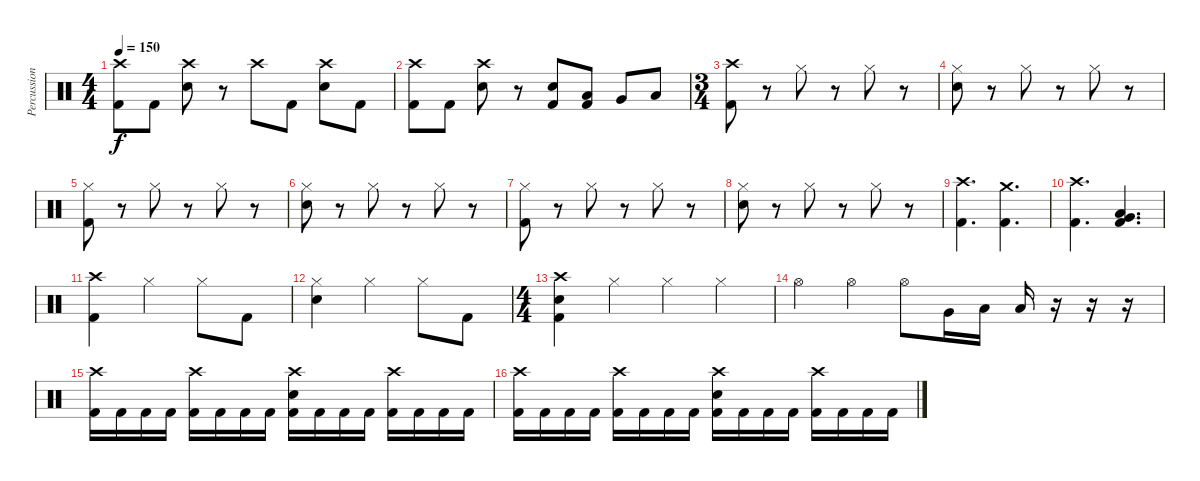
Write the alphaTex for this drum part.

\track ("Percussion" "Percussion") {instrument percussion}
\staff {score}
\articulation defaults
\ts (4 4)
\tempo 150
\clef neutral
\ks c
("Crash high (hit)" "Kick (hit) 2").8{dy f} "Kick (hit) 2".8 ("Crash high (hit)" "Electric Snare (hit)").8 r.8 "Crash high (hit)".8 "Kick (hit) 2".8 ("Crash high (hit)" "Electric Snare (hit)").8 "Kick (hit) 2".8 |
("Crash high (hit)" "Kick (hit) 2").8 "Kick (hit) 2".8 ("Crash high (hit)" "Electric Snare (hit)").8 r.8 ("Electric Snare (hit)" "Kick (hit) 2").8 ("Low Tom (hit)" "Kick (hit) 2").8 "Very Low Tom (hit)".8 "Low Floor Tom (hit)".8 |
\ts (3 4)
("Crash high (hit)" "Kick (hit) 2").8 r.8 "Hi-Hat (closed)".8 r.8 "Hi-Hat (closed)".8 r.8 |
("Hi-Hat (closed)" "Electric Snare (hit)").8 r.8 "Hi-Hat (closed)".8 r.8 "Hi-Hat (closed)".8 r.8 |
("Hi-Hat (closed)" "Kick (hit) 2").8 r.8 "Hi-Hat (closed)".8 r.8 "Hi-Hat (closed)".8 r.8 |
("Hi-Hat (closed)" "Electric Snare (hit)").8 r.8 "Hi-Hat (closed)".8 r.8 "Hi-Hat (closed)".8 r.8 |
("Hi-Hat (closed)" "Kick (hit) 2").8 r.8 "Hi-Hat (closed)".8 r.8 "Hi-Hat (closed)".8 r.8 |
("Hi-Hat (closed)" "Electric Snare (hit)").8 r.8 "Hi-Hat (closed)".8 r.8 "Hi-Hat (closed)".8 r.8 |
("Crash high (hit)" "Kick (hit) 2").4{d} ("Crash medium (hit)" "Kick (hit) 2").4{d} |
("Crash high (hit)" "Kick (hit) 2").4{d} ("Low Tom (hit)" "Very Low Tom (hit)" "Kick (hit) 2").4{d} |
("Crash high (hit)" "Kick (hit) 2").4 "Hi-Hat (closed)".4 "Hi-Hat (closed)".8 "Kick (hit) 2".8 |
("Hi-Hat (closed)" "Electric Snare (hit)").4 "Hi-Hat (closed)".4 "Hi-Hat (closed)".8 "Kick (hit) 2".8 |
\ts (4 4)
("Crash high (hit)" "Electric Snare (hit)" "Kick (hit) 2").4 "Hi-Hat (closed)".4 "Hi-Hat (closed)".4 "Hi-Hat (closed)".4 |
"Hi-Hat (open)".4 "Hi-Hat (open)".4 "Hi-Hat (open)".8 "Very Low Tom (hit)".16 "Low Floor Tom (hit)".16 "Low Tom (hit)".16 r.16 r.16 r.16 |
("Crash high (hit)" "Kick (hit) 2").16 "Kick (hit) 2".16 "Kick (hit) 2".16 "Kick (hit) 2".16 ("Crash high (hit)" "Kick (hit) 2").16 "Kick (hit) 2".16 "Kick (hit) 2".16 "Kick (hit) 2".16 ("Crash high (hit)" "Electric Snare (hit)" "Kick (hit) 2").16 "Kick (hit) 2".16 "Kick (hit) 2".16 "Kick (hit) 2".16 ("Crash high (hit)" "Kick (hit) 2").16 "Kick (hit) 2".16 "Kick (hit) 2".16 "Kick (hit) 2".16 |
("Crash high (hit)" "Kick (hit) 2").16 "Kick (hit) 2".16 "Kick (hit) 2".16 "Kick (hit) 2".16 ("Crash high (hit)" "Kick (hit) 2").16 "Kick (hit) 2".16 "Kick (hit) 2".16 "Kick (hit) 2".16 ("Crash high (hit)" "Electric Snare (hit)" "Kick (hit) 2").16 "Kick (hit) 2".16 "Kick (hit) 2".16 "Kick (hit) 2".16 ("Crash high (hit)" "Kick (hit) 2").16 "Kick (hit) 2".16 "Kick (hit) 2".16 "Kick (hit) 2".16
